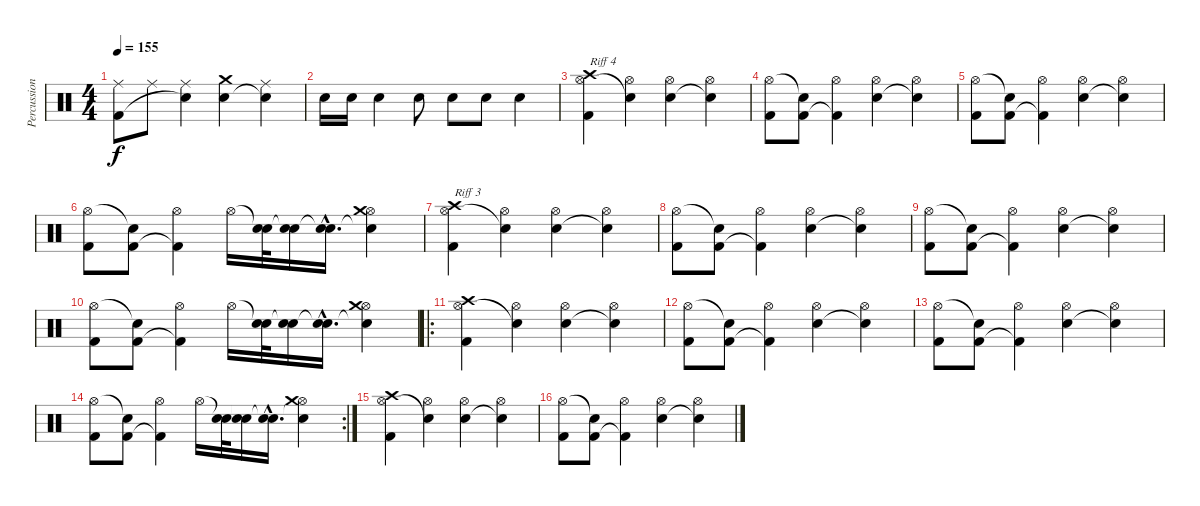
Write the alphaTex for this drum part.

\track ("Percussion" "Percussion") {instrument percussion}
\staff {score}
\articulation defaults
\ts (4 4)
\tempo 155
\clef neutral
\ks c
("Ride (middle)" "Kick (hit) 2").8{dy f} "Ride (middle)".8 ("Ride (middle)" "Snare (hit)"{t}).4 ("Crash medium (hit)" "Electric Snare (hit)").4 ("Ride (middle)" "Snare (hit)"{t}).4 |
"Electric Snare (hit)".16 "Electric Snare (hit)".16 "Electric Snare (hit)".4 "Electric Snare (hit)".8 "Electric Snare (hit)".8 "Electric Snare (hit)".8 "Electric Snare (hit)".4 |
("Crash high (hit)" "Hi-Hat (open)" "Kick (hit) 2").4{txt "Riff 4"} ("Hi-Hat (open)" "Snare (hit)"{t}).4 ("Hi-Hat (open)" "Electric Snare (hit)").4 ("Hi-Hat (open)" "Snare (hit)"{t}).4 |
("Hi-Hat (open)" "Kick (hit) 2").8 ("Snare (hit)"{t} "Kick (hit) 2").8 ("Hi-Hat (open)" "Kick (hit) 2"{t}).4 ("Hi-Hat (open)" "Electric Snare (hit)").4 ("Hi-Hat (open)" "Snare (hit)"{t}).4 |
("Hi-Hat (open)" "Kick (hit) 2").8 ("Snare (hit)"{t} "Kick (hit) 2").8 ("Hi-Hat (open)" "Kick (hit) 2"{t}).4 ("Hi-Hat (open)" "Electric Snare (hit)").4 ("Hi-Hat (open)" "Snare (hit)"{t}).4 |
("Hi-Hat (open)" "Kick (hit) 2").8 ("Snare (hit)"{t} "Kick (hit) 2").8 ("Hi-Hat (open)" "Kick (hit) 2"{t}).4 "Hi-Hat (open)".16 ("Snare (hit)"{t} "Electric Snare (hit)").32 ("Snare (hit)"{t} "Electric Snare (hit)").16 ("Snare (hit)"{hac t} "Electric Snare (hit)"{hac}).16{d} ("Hi-Hat (open)" "Electric Snare (hit)"{t} "Crash medium (hit)").4 |
("Crash high (hit)" "Hi-Hat (open)" "Kick (hit) 2").4{txt "Riff 3"} ("Hi-Hat (open)" "Snare (hit)"{t}).4 ("Hi-Hat (open)" "Electric Snare (hit)").4 ("Hi-Hat (open)" "Snare (hit)"{t}).4 |
("Hi-Hat (open)" "Kick (hit) 2").8 ("Snare (hit)"{t} "Kick (hit) 2").8 ("Hi-Hat (open)" "Kick (hit) 2"{t}).4 ("Hi-Hat (open)" "Electric Snare (hit)").4 ("Hi-Hat (open)" "Snare (hit)"{t}).4 |
("Hi-Hat (open)" "Kick (hit) 2").8 ("Snare (hit)"{t} "Kick (hit) 2").8 ("Hi-Hat (open)" "Kick (hit) 2"{t}).4 ("Hi-Hat (open)" "Electric Snare (hit)").4 ("Hi-Hat (open)" "Snare (hit)"{t}).4 |
("Hi-Hat (open)" "Kick (hit) 2").8 ("Snare (hit)"{t} "Kick (hit) 2").8 ("Hi-Hat (open)" "Kick (hit) 2"{t}).4 "Hi-Hat (open)".16 ("Snare (hit)"{t} "Electric Snare (hit)").32 ("Snare (hit)"{t} "Electric Snare (hit)").16 ("Snare (hit)"{hac t} "Electric Snare (hit)"{hac}).16{d} ("Hi-Hat (open)" "Electric Snare (hit)"{t} "Crash medium (hit)").4 |
\ro
("Crash high (hit)" "Hi-Hat (open)" "Kick (hit) 2").4 ("Hi-Hat (open)" "Snare (hit)"{t}).4 ("Hi-Hat (open)" "Electric Snare (hit)").4 ("Hi-Hat (open)" "Snare (hit)"{t}).4 |
("Hi-Hat (open)" "Kick (hit) 2").8 ("Snare (hit)"{t} "Kick (hit) 2").8 ("Hi-Hat (open)" "Kick (hit) 2"{t}).4 ("Hi-Hat (open)" "Electric Snare (hit)").4 ("Hi-Hat (open)" "Snare (hit)"{t}).4 |
("Hi-Hat (open)" "Kick (hit) 2").8 ("Snare (hit)"{t} "Kick (hit) 2").8 ("Hi-Hat (open)" "Kick (hit) 2"{t}).4 ("Hi-Hat (open)" "Electric Snare (hit)").4 ("Hi-Hat (open)" "Snare (hit)"{t}).4 |
\rc 2
("Hi-Hat (open)" "Kick (hit) 2").8 ("Snare (hit)"{t} "Kick (hit) 2").8 ("Hi-Hat (open)" "Kick (hit) 2"{t}).4 "Hi-Hat (open)".16 ("Snare (hit)"{t} "Electric Snare (hit)").32 ("Snare (hit)"{t} "Electric Snare (hit)").16 ("Snare (hit)"{hac t} "Electric Snare (hit)"{hac}).16{d} ("Hi-Hat (open)" "Electric Snare (hit)"{t} "Crash medium (hit)").4 |
("Crash high (hit)" "Hi-Hat (open)" "Kick (hit) 2").4 ("Hi-Hat (open)" "Snare (hit)"{t}).4 ("Hi-Hat (open)" "Electric Snare (hit)").4 ("Hi-Hat (open)" "Snare (hit)"{t}).4 |
("Hi-Hat (open)" "Kick (hit) 2").8 ("Snare (hit)"{t} "Kick (hit) 2").8 ("Hi-Hat (open)" "Kick (hit) 2"{t}).4 ("Hi-Hat (open)" "Electric Snare (hit)").4 ("Hi-Hat (open)" "Snare (hit)"{t}).4
